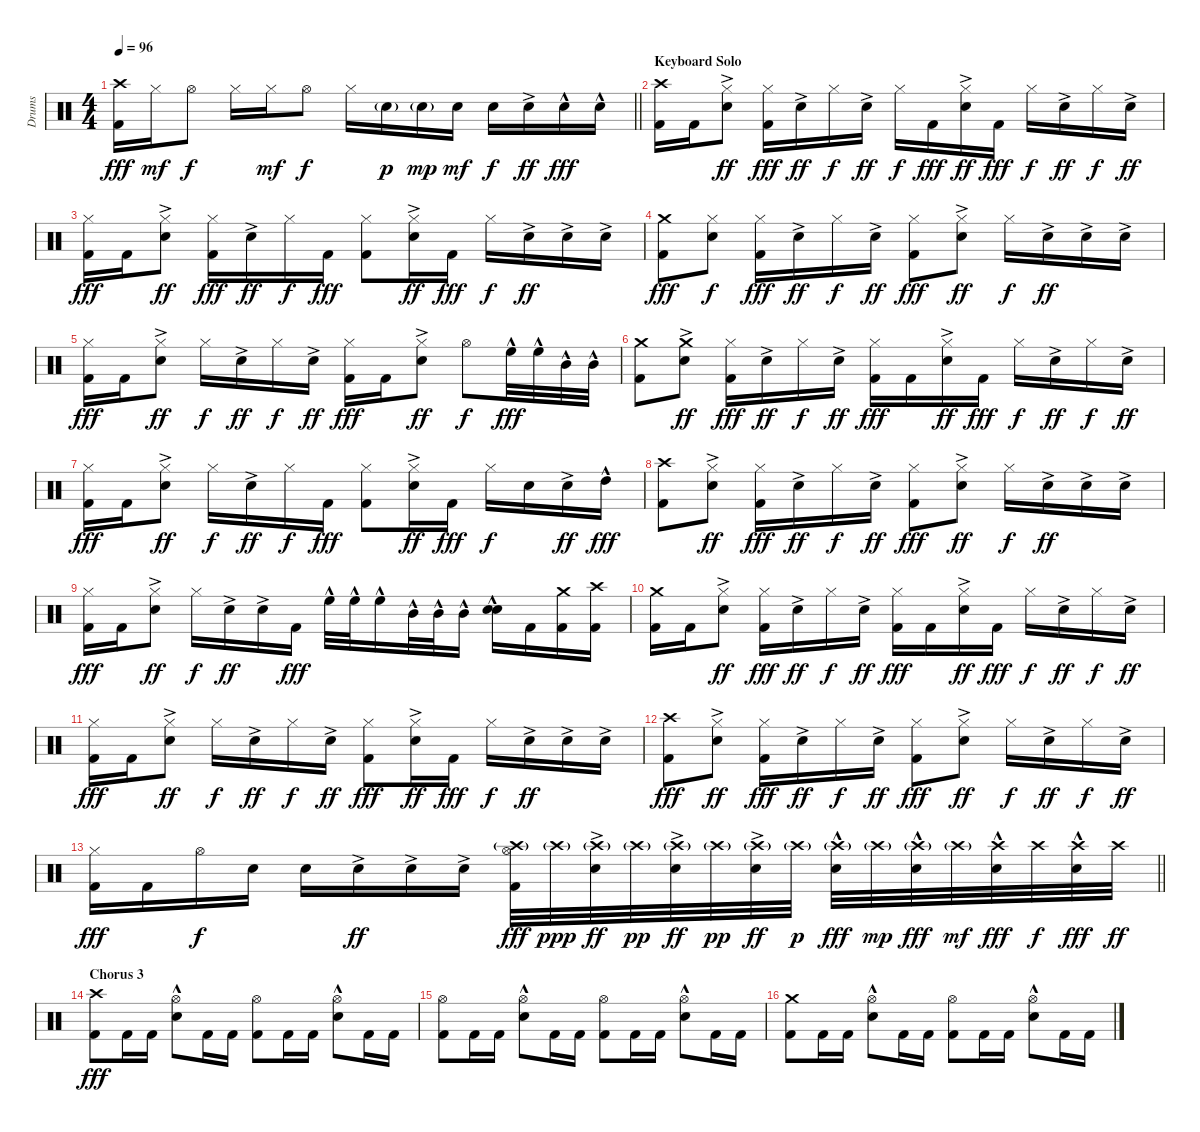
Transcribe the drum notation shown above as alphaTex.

\track ("Drums" "Drums") {instrument percussion}
\staff {score}
\articulation defaults
\ts (4 4)
\tempo 96
\clef neutral
\barLineRight lightlight
\ks c
("Crash high (hit)" "Kick (hit) 2").16{dy fff} "Hi-Hat (closed)".16{dy mf} "Hi-Hat (open)".8{dy f} "Hi-Hat (closed)".16 "Hi-Hat (closed)".16{dy mf} "Hi-Hat (open)".8{dy f} "Hi-Hat (closed)".16 "Electric Snare (hit)"{g}.16{dy p} "Electric Snare (hit)"{g}.16{dy mp} "Electric Snare (hit)".16{dy mf} "Electric Snare (hit)".16{dy f} "Electric Snare (hit)"{ac}.16{dy ff} "Electric Snare (hit)"{hac}.16{dy fff} "Electric Snare (hit)"{hac}.16 |
\section ("" "Keyboard Solo")
("Crash high (hit)" "Kick (hit) 2").16 "Kick (hit) 2".16 ("Hi-Hat (closed)" "Electric Snare (hit)"{ac}).8{dy ff} ("Hi-Hat (closed)" "Kick (hit) 2").16{dy fff} "Electric Snare (hit)"{ac}.16{dy ff} "Hi-Hat (closed)".16{dy f} "Electric Snare (hit)"{ac}.16{dy ff} "Hi-Hat (closed)".16{dy f} "Kick (hit) 2".16{dy fff} ("Hi-Hat (closed)" "Electric Snare (hit)"{ac}).16{dy ff} "Kick (hit) 2".16{dy fff} "Hi-Hat (closed)".16{dy f} "Electric Snare (hit)"{ac}.16{dy ff} "Hi-Hat (closed)".16{dy f} "Electric Snare (hit)"{ac}.16{dy ff} |
("Hi-Hat (closed)" "Kick (hit) 2").16{dy fff} "Kick (hit) 2".16 ("Hi-Hat (closed)" "Electric Snare (hit)"{ac}).8{dy ff} ("Hi-Hat (closed)" "Kick (hit) 2").16{dy fff} "Electric Snare (hit)"{ac}.16{dy ff} "Hi-Hat (closed)".16{dy f} "Kick (hit) 2".16{dy fff} ("Hi-Hat (closed)" "Kick (hit) 2").8 ("Hi-Hat (closed)" "Electric Snare (hit)"{ac}).16{dy ff} "Kick (hit) 2".16{dy fff} "Hi-Hat (closed)".16{dy f} "Electric Snare (hit)"{ac}.16{dy ff} "Electric Snare (hit)"{ac}.16 "Electric Snare (hit)"{ac}.16 |
("Crash medium (hit)" "Kick (hit) 2").8{dy fff} ("Hi-Hat (closed)" "Electric Snare (hit)").8{dy f} ("Hi-Hat (closed)" "Kick (hit) 2").16{dy fff} "Electric Snare (hit)"{ac}.16{dy ff} "Hi-Hat (closed)".16{dy f} "Electric Snare (hit)"{ac}.16{dy ff} ("Hi-Hat (closed)" "Kick (hit) 2").8{dy fff} ("Hi-Hat (closed)" "Electric Snare (hit)"{ac}).8{dy ff} "Hi-Hat (closed)".16{dy f} "Electric Snare (hit)"{ac}.16{dy ff} "Electric Snare (hit)"{ac}.16 "Electric Snare (hit)"{ac}.16 |
("Hi-Hat (closed)" "Kick (hit) 2").16{dy fff} "Kick (hit) 2".16 ("Hi-Hat (closed)" "Electric Snare (hit)"{ac}).8{dy ff} "Hi-Hat (closed)".16{dy f} "Electric Snare (hit)"{ac}.16{dy ff} "Hi-Hat (closed)".16{dy f} "Electric Snare (hit)"{ac}.16{dy ff} ("Hi-Hat (closed)" "Kick (hit) 2").16{dy fff} "Kick (hit) 2".16 ("Hi-Hat (closed)" "Electric Snare (hit)"{ac}).8{dy ff} "Hi-Hat (open)".8{dy f} "High Floor Tom (hit)"{hac}.32{dy fff} "High Floor Tom (hit)"{hac}.32 "Mid Tom (hit)"{hac}.32 "Mid Tom (hit)"{hac}.32 |
("Crash medium (hit)" "Kick (hit) 2").8 ("Crash medium (hit)" "Electric Snare (hit)"{ac}).8{dy ff} ("Hi-Hat (closed)" "Kick (hit) 2").16{dy fff} "Electric Snare (hit)"{ac}.16{dy ff} "Hi-Hat (closed)".16{dy f} "Electric Snare (hit)"{ac}.16{dy ff} ("Hi-Hat (closed)" "Kick (hit) 2").16{dy fff} "Kick (hit) 2".16 ("Hi-Hat (closed)" "Electric Snare (hit)"{ac}).16{dy ff} "Kick (hit) 2".16{dy fff} "Hi-Hat (closed)".16{dy f} "Electric Snare (hit)"{ac}.16{dy ff} "Hi-Hat (closed)".16{dy f} "Electric Snare (hit)"{ac}.16{dy ff} |
("Hi-Hat (closed)" "Kick (hit) 2").16{dy fff} "Kick (hit) 2".16 ("Hi-Hat (closed)" "Electric Snare (hit)"{ac}).8{dy ff} "Hi-Hat (closed)".16{dy f} "Electric Snare (hit)"{ac}.16{dy ff} "Hi-Hat (closed)".16{dy f} "Kick (hit) 2".16{dy fff} ("Hi-Hat (closed)" "Kick (hit) 2").8 ("Hi-Hat (closed)" "Electric Snare (hit)"{ac}).16{dy ff} "Kick (hit) 2".16{dy fff} "Hi-Hat (closed)".16{dy f} "Electric Snare (hit)".16 "Electric Snare (hit)"{ac}.16{dy ff} "High Tom (hit)"{hac}.16{dy fff} |
("Crash high (hit)" "Kick (hit) 2").8 ("Hi-Hat (closed)" "Electric Snare (hit)"{ac}).8{dy ff} ("Hi-Hat (closed)" "Kick (hit) 2").16{dy fff} "Electric Snare (hit)"{ac}.16{dy ff} "Hi-Hat (closed)".16{dy f} "Electric Snare (hit)"{ac}.16{dy ff} ("Hi-Hat (closed)" "Kick (hit) 2").8{dy fff} ("Hi-Hat (closed)" "Electric Snare (hit)"{ac}).8{dy ff} "Hi-Hat (closed)".16{dy f} "Electric Snare (hit)"{ac}.16{dy ff} "Electric Snare (hit)"{ac}.16 "Electric Snare (hit)"{ac}.16 |
("Hi-Hat (closed)" "Kick (hit) 2").16{dy fff} "Kick (hit) 2".16 ("Hi-Hat (closed)" "Electric Snare (hit)"{ac}).8{dy ff} "Hi-Hat (closed)".16{dy f} "Electric Snare (hit)"{ac}.16{dy ff} "Electric Snare (hit)"{ac}.16 "Kick (hit) 2".16{dy fff} "High Floor Tom (hit)"{hac}.32 "High Floor Tom (hit)"{hac}.32 "High Floor Tom (hit)"{hac}.16 "Mid Tom (hit)"{hac}.32 "Mid Tom (hit)"{hac}.32 "Mid Tom (hit)"{hac}.16 ("Electric Snare (hit)"{hac} "Electric Snare (hit)"{hac}).16{bu 120} "Kick (hit) 2".16 ("Crash medium (hit)" "Kick (hit) 2").16 ("Crash high (hit)" "Kick (hit) 2").16 |
("Crash medium (hit)" "Kick (hit) 2").16 "Kick (hit) 2".16 ("Hi-Hat (closed)" "Electric Snare (hit)"{ac}).8{dy ff} ("Hi-Hat (closed)" "Kick (hit) 2").16{dy fff} "Electric Snare (hit)"{ac}.16{dy ff} "Hi-Hat (closed)".16{dy f} "Electric Snare (hit)"{ac}.16{dy ff} ("Hi-Hat (closed)" "Kick (hit) 2").16{dy fff} "Kick (hit) 2".16 ("Hi-Hat (closed)" "Electric Snare (hit)"{ac}).16{dy ff} "Kick (hit) 2".16{dy fff} "Hi-Hat (closed)".16{dy f} "Electric Snare (hit)"{ac}.16{dy ff} "Hi-Hat (closed)".16{dy f} "Electric Snare (hit)"{ac}.16{dy ff} |
("Hi-Hat (closed)" "Kick (hit) 2").16{dy fff} "Kick (hit) 2".16 ("Hi-Hat (closed)" "Electric Snare (hit)"{ac}).8{dy ff} "Hi-Hat (closed)".16{dy f} "Electric Snare (hit)"{ac}.16{dy ff} "Hi-Hat (closed)".16{dy f} "Electric Snare (hit)"{ac}.16{dy ff} ("Hi-Hat (closed)" "Kick (hit) 2").8{dy fff} ("Hi-Hat (closed)" "Electric Snare (hit)"{ac}).16{dy ff} "Kick (hit) 2".16{dy fff} "Hi-Hat (closed)".16{dy f} "Electric Snare (hit)"{ac}.16{dy ff} "Electric Snare (hit)"{ac}.16 "Electric Snare (hit)"{ac}.16 |
("Crash high (hit)" "Kick (hit) 2").8{dy fff} ("Hi-Hat (closed)" "Electric Snare (hit)"{ac}).8{dy ff} ("Hi-Hat (closed)" "Kick (hit) 2").16{dy fff} "Electric Snare (hit)"{ac}.16{dy ff} "Hi-Hat (closed)".16{dy f} "Electric Snare (hit)"{ac}.16{dy ff} ("Hi-Hat (closed)" "Kick (hit) 2").8{dy fff} ("Hi-Hat (closed)" "Electric Snare (hit)"{ac}).8{dy ff} "Hi-Hat (closed)".16{dy f} "Electric Snare (hit)"{ac}.16{dy ff} "Hi-Hat (closed)".16{dy f} "Electric Snare (hit)"{ac}.16{dy ff} |
\barLineRight lightlight
("Hi-Hat (closed)" "Kick (hit) 2").16{dy fff} "Kick (hit) 2".16 "Hi-Hat (open)".16{dy f} "Electric Snare (hit)".16 "Electric Snare (hit)".16 "Electric Snare (hit)"{ac}.16{dy ff} "Electric Snare (hit)"{ac}.16 "Electric Snare (hit)"{ac}.16 ("Crash high (hit)"{g} "Hi-Hat (open)" "Kick (hit) 2").32{dy fff} "Crash high (hit)"{g}.32{dy ppp} ("Crash high (hit)"{g} "Electric Snare (hit)"{ac}).32{dy ff} "Crash high (hit)"{g}.32{dy pp} ("Crash high (hit)"{g} "Electric Snare (hit)"{ac}).32{dy ff} "Crash high (hit)"{g}.32{dy pp} ("Crash high (hit)"{g} "Electric Snare (hit)"{ac}).32{dy ff} "Crash high (hit)"{g}.32{dy p} ("Crash high (hit)"{g} "Electric Snare (hit)"{hac}).32{dy fff} "Crash high (hit)"{g}.32{dy mp} ("Crash high (hit)"{g} "Electric Snare (hit)"{hac}).32{dy fff} "Crash high (hit)"{g}.32{dy mf} ("Crash high (hit)" "Electric Snare (hit)"{hac}).32{dy fff} "Crash high (hit)".32{dy f} ("Crash high (hit)" "Electric Snare (hit)"{hac}).32{dy fff} "Crash high (hit)".32{dy ff} |
\section ("" "Chorus 3")
("Crash high (hit)" "Kick (hit) 2").8{dy fff} "Kick (hit) 2".16 "Kick (hit) 2".16 ("Hi-Hat (open)" "Electric Snare (hit)"{hac}).8 "Kick (hit) 2".16 "Kick (hit) 2".16 ("Hi-Hat (open)" "Kick (hit) 2").8 "Kick (hit) 2".16 "Kick (hit) 2".16 ("Hi-Hat (open)" "Electric Snare (hit)"{hac}).8 "Kick (hit) 2".16 "Kick (hit) 2".16 |
("Hi-Hat (open)" "Kick (hit) 2").8 "Kick (hit) 2".16 "Kick (hit) 2".16 ("Hi-Hat (open)" "Electric Snare (hit)"{hac}).8 "Kick (hit) 2".16 "Kick (hit) 2".16 ("Hi-Hat (open)" "Kick (hit) 2").8 "Kick (hit) 2".16 "Kick (hit) 2".16 ("Hi-Hat (open)" "Electric Snare (hit)"{hac}).8 "Kick (hit) 2".16 "Kick (hit) 2".16 |
("Crash medium (hit)" "Kick (hit) 2").8 "Kick (hit) 2".16 "Kick (hit) 2".16 ("Hi-Hat (open)" "Electric Snare (hit)"{hac}).8 "Kick (hit) 2".16 "Kick (hit) 2".16 ("Hi-Hat (open)" "Kick (hit) 2").8 "Kick (hit) 2".16 "Kick (hit) 2".16 ("Hi-Hat (open)" "Electric Snare (hit)"{hac}).8 "Kick (hit) 2".16 "Kick (hit) 2".16
